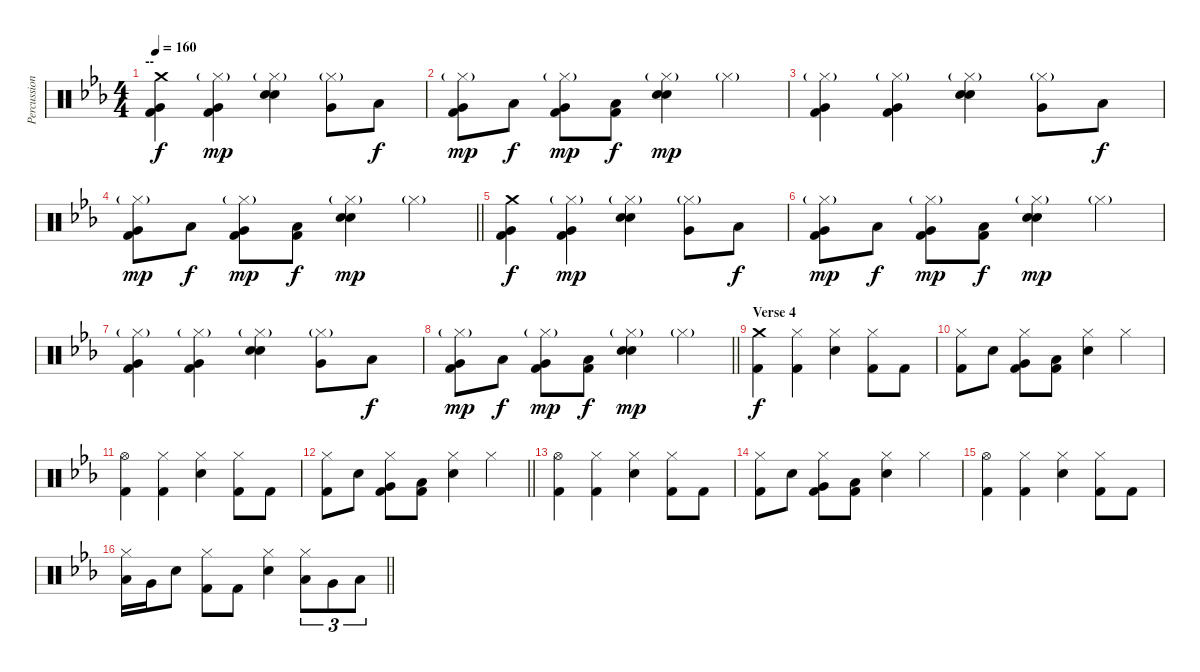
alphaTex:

\track ("Percussion" "Percussion") {instrument percussion}
\staff {score}
\articulation defaults
\ts (4 4)
\section ("" "--")
\tempo 160
\clef neutral
\ks eb
("Crash medium (hit)" "Very Low Tom (hit)" "Kick (hit) 2").4{dy f} ("Hi-Hat (closed)"{g} "Very Low Tom (hit)" "Kick (hit) 2").4{dy mp} ("Hi-Hat (closed)"{g} "Snare (hit) 2" "Electric Snare (hit)").4 ("Hi-Hat (closed)"{g} "Very Low Tom (hit)").8 "Low Floor Tom (hit)".8{dy f} |
("Hi-Hat (closed)"{g} "Very Low Tom (hit)" "Kick (hit) 2").8{dy mp} "Low Floor Tom (hit)".8{dy f} ("Hi-Hat (closed)"{g} "Very Low Tom (hit)" "Kick (hit) 2").8{dy mp} ("Low Floor Tom (hit)" "Kick (hit) 2").8{dy f} ("Hi-Hat (closed)"{g} "Snare (hit) 2" "Electric Snare (hit)").4{dy mp} "Hi-Hat (closed)"{g}.4 |
("Hi-Hat (closed)"{g} "Very Low Tom (hit)" "Kick (hit) 2").4 ("Hi-Hat (closed)"{g} "Very Low Tom (hit)" "Kick (hit) 2").4 ("Hi-Hat (closed)"{g} "Snare (hit) 2" "Electric Snare (hit)").4 ("Hi-Hat (closed)"{g} "Very Low Tom (hit)").8 "Low Floor Tom (hit)".8{dy f} |
\barLineRight lightlight
("Hi-Hat (closed)"{g} "Very Low Tom (hit)" "Kick (hit) 2").8{dy mp} "Low Floor Tom (hit)".8{dy f} ("Hi-Hat (closed)"{g} "Very Low Tom (hit)" "Kick (hit) 2").8{dy mp} ("Low Floor Tom (hit)" "Kick (hit) 2").8{dy f} ("Hi-Hat (closed)"{g} "Snare (hit) 2" "Electric Snare (hit)").4{dy mp} "Hi-Hat (closed)"{g}.4 |
\section ("" "")
("Crash medium (hit)" "Very Low Tom (hit)" "Kick (hit) 2").4{dy f} ("Hi-Hat (closed)"{g} "Very Low Tom (hit)" "Kick (hit) 2").4{dy mp} ("Hi-Hat (closed)"{g} "Snare (hit) 2" "Electric Snare (hit)").4 ("Hi-Hat (closed)"{g} "Very Low Tom (hit)").8 "Low Floor Tom (hit)".8{dy f} |
("Hi-Hat (closed)"{g} "Very Low Tom (hit)" "Kick (hit) 2").8{dy mp} "Low Floor Tom (hit)".8{dy f} ("Hi-Hat (closed)"{g} "Very Low Tom (hit)" "Kick (hit) 2").8{dy mp} ("Low Floor Tom (hit)" "Kick (hit) 2").8{dy f} ("Hi-Hat (closed)"{g} "Snare (hit) 2" "Electric Snare (hit)").4{dy mp} "Hi-Hat (closed)"{g}.4 |
("Hi-Hat (closed)"{g} "Very Low Tom (hit)" "Kick (hit) 2").4 ("Hi-Hat (closed)"{g} "Very Low Tom (hit)" "Kick (hit) 2").4 ("Hi-Hat (closed)"{g} "Snare (hit) 2" "Electric Snare (hit)").4 ("Hi-Hat (closed)"{g} "Very Low Tom (hit)").8 "Low Floor Tom (hit)".8{dy f} |
\barLineRight lightlight
("Hi-Hat (closed)"{g} "Very Low Tom (hit)" "Kick (hit) 2").8{dy mp} "Low Floor Tom (hit)".8{dy f} ("Hi-Hat (closed)"{g} "Very Low Tom (hit)" "Kick (hit) 2").8{dy mp} ("Low Floor Tom (hit)" "Kick (hit) 2").8{dy f} ("Hi-Hat (closed)"{g} "Snare (hit) 2" "Electric Snare (hit)").4{dy mp} "Hi-Hat (closed)"{g}.4 |
\section ("" "Verse 4")
("Crash medium (hit)" "Kick (hit) 2").4{dy f} ("Hi-Hat (closed)" "Kick (hit) 2").4 ("Hi-Hat (closed)" "Snare (hit) 2").4 ("Hi-Hat (closed)" "Kick (hit) 2").8 "Kick (hit) 2".8 |
("Hi-Hat (closed)" "Kick (hit) 2").8 "Snare (hit) 2".8 ("Hi-Hat (closed)" "Very Low Tom (hit)" "Kick (hit) 2").8 ("Low Floor Tom (hit)" "Kick (hit) 2").8 ("Hi-Hat (closed)" "Snare (hit) 2").4 "Hi-Hat (closed)".4 |
("Hi-Hat (open)" "Kick (hit) 2").4 ("Hi-Hat (closed)" "Kick (hit) 2").4 ("Hi-Hat (closed)" "Snare (hit) 2").4 ("Hi-Hat (closed)" "Kick (hit) 2").8 "Kick (hit) 2".8 |
\barLineRight lightlight
("Hi-Hat (closed)" "Kick (hit) 2").8 "Snare (hit) 2".8 ("Hi-Hat (closed)" "Very Low Tom (hit)" "Kick (hit) 2").8 ("Low Floor Tom (hit)" "Kick (hit) 2").8 ("Hi-Hat (closed)" "Snare (hit) 2").4 "Hi-Hat (closed)".4 |
\section ("" "")
("Hi-Hat (open)" "Kick (hit) 2").4 ("Hi-Hat (closed)" "Kick (hit) 2").4 ("Hi-Hat (closed)" "Snare (hit) 2").4 ("Hi-Hat (closed)" "Kick (hit) 2").8 "Kick (hit) 2".8 |
("Hi-Hat (closed)" "Kick (hit) 2").8 "Snare (hit) 2".8 ("Hi-Hat (closed)" "Very Low Tom (hit)" "Kick (hit) 2").8 ("Low Floor Tom (hit)" "Kick (hit) 2").8 ("Hi-Hat (closed)" "Snare (hit) 2").4 "Hi-Hat (closed)".4 |
("Hi-Hat (open)" "Kick (hit) 2").4 ("Hi-Hat (closed)" "Kick (hit) 2").4 ("Hi-Hat (closed)" "Snare (hit) 2").4 ("Hi-Hat (closed)" "Kick (hit) 2").8 "Kick (hit) 2".8 |
\barLineRight lightlight
("Hi-Hat (closed)" "Low Floor Tom (hit)").16 "Very Low Tom (hit)".16 "Snare (hit) 2".8 ("Hi-Hat (closed)" "Kick (hit) 2").8 "Kick (hit) 2".8 ("Hi-Hat (closed)" "Snare (hit) 2").4 ("Hi-Hat (closed)" "Low Tom (hit)").8{tu (3 2)} "Very Low Tom (hit)".8{tu (3 2)} "Low Floor Tom (hit)".8{tu (3 2)}
